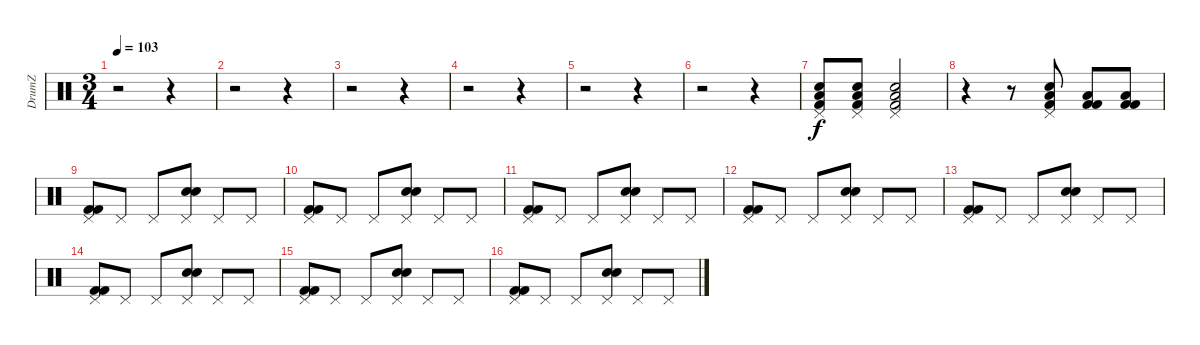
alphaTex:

\track ("DrumZ" "DrumZ") {instrument percussion}
\staff {score}
\articulation defaults
\ts (3 4)
\tempo 103
\clef neutral
\ks c
r.2{dy f} r.4 |
r.2 r.4 |
r.2 r.4 |
r.2 r.4 |
r.2 r.4 |
r.2 r.4 |
("Low Tom (hit)" "Pedal Hi-Hat (hit)" "Snare (hit) 2" "Kick (hit) 2").8 ("Low Tom (hit)" "Pedal Hi-Hat (hit)" "Snare (hit) 2" "Kick (hit) 2").8 ("Low Tom (hit)" "Pedal Hi-Hat (hit)" "Snare (hit) 2" "Kick (hit) 2").2 |
r.4 r.8 ("Low Tom (hit)" "Pedal Hi-Hat (hit)" "Snare (hit) 2" "Kick (hit) 2").8 ("Low Tom (hit)" "Kick (hit) 2" "Kick (hit) 2").8 ("Low Tom (hit)" "Kick (hit) 2" "Kick (hit) 2").8 |
("Pedal Hi-Hat (hit)" "Kick (hit) 2" "Kick (hit) 2").8 "Pedal Hi-Hat (hit)".8 "Pedal Hi-Hat (hit)".8 ("Pedal Hi-Hat (hit)" "Electric Snare (hit)" "Electric Snare (hit)").8 "Pedal Hi-Hat (hit)".8 "Pedal Hi-Hat (hit)".8 |
("Pedal Hi-Hat (hit)" "Kick (hit) 2" "Kick (hit) 2").8 "Pedal Hi-Hat (hit)".8 "Pedal Hi-Hat (hit)".8 ("Pedal Hi-Hat (hit)" "Electric Snare (hit)" "Electric Snare (hit)").8 "Pedal Hi-Hat (hit)".8 "Pedal Hi-Hat (hit)".8 |
("Pedal Hi-Hat (hit)" "Kick (hit) 2" "Kick (hit) 2").8 "Pedal Hi-Hat (hit)".8 "Pedal Hi-Hat (hit)".8 ("Pedal Hi-Hat (hit)" "Electric Snare (hit)" "Electric Snare (hit)").8 "Pedal Hi-Hat (hit)".8 "Pedal Hi-Hat (hit)".8 |
("Pedal Hi-Hat (hit)" "Kick (hit) 2" "Kick (hit) 2").8 "Pedal Hi-Hat (hit)".8 "Pedal Hi-Hat (hit)".8 ("Pedal Hi-Hat (hit)" "Electric Snare (hit)" "Electric Snare (hit)").8 "Pedal Hi-Hat (hit)".8 "Pedal Hi-Hat (hit)".8 |
("Pedal Hi-Hat (hit)" "Kick (hit) 2" "Kick (hit) 2").8 "Pedal Hi-Hat (hit)".8 "Pedal Hi-Hat (hit)".8 ("Pedal Hi-Hat (hit)" "Electric Snare (hit)" "Electric Snare (hit)").8 "Pedal Hi-Hat (hit)".8 "Pedal Hi-Hat (hit)".8 |
("Pedal Hi-Hat (hit)" "Kick (hit) 2" "Kick (hit) 2").8 "Pedal Hi-Hat (hit)".8 "Pedal Hi-Hat (hit)".8 ("Pedal Hi-Hat (hit)" "Electric Snare (hit)" "Electric Snare (hit)").8 "Pedal Hi-Hat (hit)".8 "Pedal Hi-Hat (hit)".8 |
("Pedal Hi-Hat (hit)" "Kick (hit) 2" "Kick (hit) 2").8 "Pedal Hi-Hat (hit)".8 "Pedal Hi-Hat (hit)".8 ("Pedal Hi-Hat (hit)" "Electric Snare (hit)" "Electric Snare (hit)").8 "Pedal Hi-Hat (hit)".8 "Pedal Hi-Hat (hit)".8 |
("Pedal Hi-Hat (hit)" "Kick (hit) 2" "Kick (hit) 2").8 "Pedal Hi-Hat (hit)".8 "Pedal Hi-Hat (hit)".8 ("Pedal Hi-Hat (hit)" "Electric Snare (hit)" "Electric Snare (hit)").8 "Pedal Hi-Hat (hit)".8 "Pedal Hi-Hat (hit)".8
